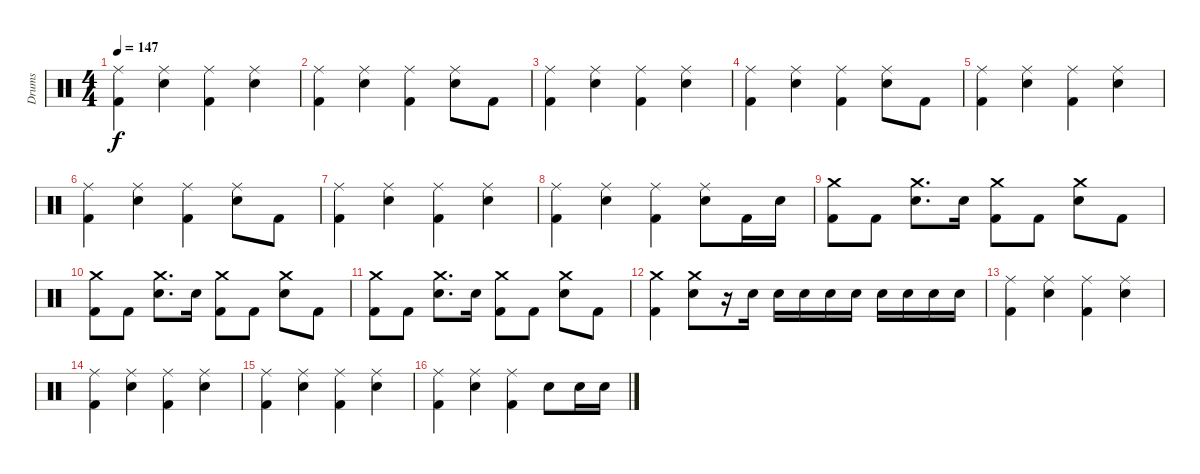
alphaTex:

\track ("Drums" "Drums") {instrument percussion}
\staff {score}
\articulation defaults
\ts (4 4)
\tempo 147
\clef neutral
\ks c
("Ride (middle)" "Kick (hit) 2").4{dy f} ("Ride (middle)" "Snare (hit) 2").4 ("Ride (middle)" "Kick (hit) 2").4 ("Ride (middle)" "Snare (hit) 2").4 |
("Ride (middle)" "Kick (hit) 2").4 ("Ride (middle)" "Snare (hit) 2").4 ("Ride (middle)" "Kick (hit) 2").4 ("Ride (middle)" "Snare (hit) 2").8 "Kick (hit) 2".8 |
("Ride (middle)" "Kick (hit) 2").4 ("Ride (middle)" "Snare (hit) 2").4 ("Ride (middle)" "Kick (hit) 2").4 ("Ride (middle)" "Snare (hit) 2").4 |
("Ride (middle)" "Kick (hit) 2").4 ("Ride (middle)" "Snare (hit) 2").4 ("Ride (middle)" "Kick (hit) 2").4 ("Ride (middle)" "Snare (hit) 2").8 "Kick (hit) 2".8 |
("Ride (middle)" "Kick (hit) 2").4 ("Ride (middle)" "Snare (hit) 2").4 ("Ride (middle)" "Kick (hit) 2").4 ("Ride (middle)" "Snare (hit) 2").4 |
("Ride (middle)" "Kick (hit) 2").4 ("Ride (middle)" "Snare (hit) 2").4 ("Ride (middle)" "Kick (hit) 2").4 ("Ride (middle)" "Snare (hit) 2").8 "Kick (hit) 2".8 |
("Ride (middle)" "Kick (hit) 2").4 ("Ride (middle)" "Snare (hit) 2").4 ("Ride (middle)" "Kick (hit) 2").4 ("Ride (middle)" "Snare (hit) 2").4 |
("Ride (middle)" "Kick (hit) 2").4 ("Ride (middle)" "Snare (hit) 2").4 ("Ride (middle)" "Kick (hit) 2").4 ("Ride (middle)" "Snare (hit) 2").8 "Kick (hit) 2".16 "Snare (hit) 2".16 |
("Crash medium (hit)" "Kick (hit) 2").8 "Kick (hit) 2".8 ("Crash medium (hit)" "Snare (hit) 2").8{d} "Snare (hit) 2".16 ("Crash medium (hit)" "Kick (hit) 2").8 "Kick (hit) 2".8 ("Crash medium (hit)" "Snare (hit) 2").8 "Kick (hit) 2".8 |
("Crash medium (hit)" "Kick (hit) 2").8 "Kick (hit) 2".8 ("Crash medium (hit)" "Snare (hit) 2").8{d} "Snare (hit) 2".16 ("Crash medium (hit)" "Kick (hit) 2").8 "Kick (hit) 2".8 ("Crash medium (hit)" "Snare (hit) 2").8 "Kick (hit) 2".8 |
("Crash medium (hit)" "Kick (hit) 2").8 "Kick (hit) 2".8 ("Crash medium (hit)" "Snare (hit) 2").8{d} "Snare (hit) 2".16 ("Crash medium (hit)" "Kick (hit) 2").8 "Kick (hit) 2".8 ("Crash medium (hit)" "Snare (hit) 2").8 "Kick (hit) 2".8 |
("Crash medium (hit)" "Kick (hit) 2").4 ("Crash medium (hit)" "Snare (hit) 2").8 r.16 "Snare (hit) 2".16 "Snare (hit) 2".16 "Snare (hit) 2".16 "Snare (hit) 2".16 "Snare (hit) 2".16 "Snare (hit) 2".16 "Snare (hit) 2".16 "Snare (hit) 2".16 "Snare (hit) 2".16 |
("Ride (middle)" "Kick (hit) 2").4 ("Ride (middle)" "Snare (hit) 2").4 ("Ride (middle)" "Kick (hit) 2").4 ("Ride (middle)" "Snare (hit) 2").4 |
("Ride (middle)" "Kick (hit) 2").4 ("Ride (middle)" "Snare (hit) 2").4 ("Ride (middle)" "Kick (hit) 2").4 ("Ride (middle)" "Snare (hit) 2").4 |
("Ride (middle)" "Kick (hit) 2").4 ("Ride (middle)" "Snare (hit) 2").4 ("Ride (middle)" "Kick (hit) 2").4 ("Ride (middle)" "Snare (hit) 2").4 |
("Ride (middle)" "Kick (hit) 2").4 ("Ride (middle)" "Snare (hit) 2").4 ("Ride (middle)" "Kick (hit) 2").4 "Snare (hit) 2".8 "Snare (hit) 2".16 "Snare (hit) 2".16
